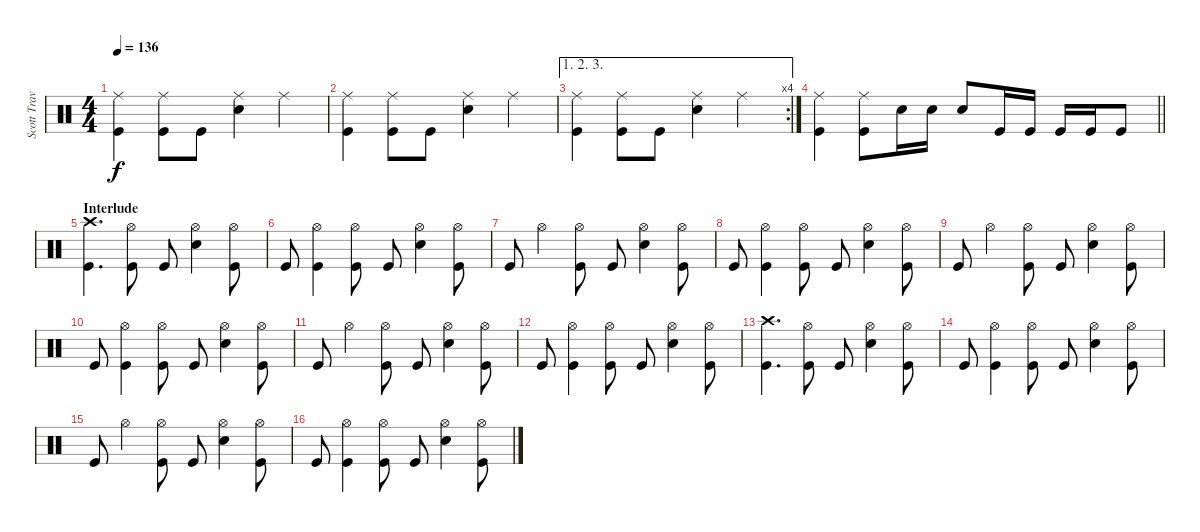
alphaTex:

\track ("Scott Travis" "Scott Trav") {instrument percussion}
\staff {score}
\articulation defaults
\ts (4 4)
\tempo 136
\clef neutral
\ks c
("Ride (middle)" "Kick (hit)").4{dy f} ("Ride (middle)" "Kick (hit)").8 "Kick (hit)".8 ("Ride (middle)" "Electric Snare (hit)").4 "Ride (middle)".4 |
("Ride (middle)" "Kick (hit)").4 ("Ride (middle)" "Kick (hit)").8 "Kick (hit)".8 ("Ride (middle)" "Electric Snare (hit)").4 "Ride (middle)".4 |
\ae (1 2 3)
\rc 4
("Ride (middle)" "Kick (hit)").4 ("Ride (middle)" "Kick (hit)").8 "Kick (hit)".8 ("Ride (middle)" "Electric Snare (hit)").4 "Ride (middle)".4 |
\barLineRight lightlight
("Ride (middle)" "Kick (hit)").4 ("Ride (middle)" "Kick (hit)").8 "Electric Snare (hit)".16 "Electric Snare (hit)".16 "Electric Snare (hit)".8 "Kick (hit)".16 "Kick (hit)".16 "Kick (hit)".16 "Kick (hit)".16 "Kick (hit)".8 |
\section ("" "Interlude")
("Crash high (hit)" "Kick (hit)").4{d} ("Hi-Hat (open)" "Kick (hit)").8 "Kick (hit)".8 ("Hi-Hat (open)" "Electric Snare (hit)").4 ("Hi-Hat (open)" "Kick (hit)").8 |
"Kick (hit)".8 ("Hi-Hat (open)" "Kick (hit)").4 ("Hi-Hat (open)" "Kick (hit)").8 "Kick (hit)".8 ("Hi-Hat (open)" "Electric Snare (hit)").4 ("Hi-Hat (open)" "Kick (hit)").8 |
"Kick (hit)".8 "Hi-Hat (open)".4 ("Hi-Hat (open)" "Kick (hit)").8 "Kick (hit)".8 ("Hi-Hat (open)" "Electric Snare (hit)").4 ("Hi-Hat (open)" "Kick (hit)").8 |
"Kick (hit)".8 ("Hi-Hat (open)" "Kick (hit)").4 ("Hi-Hat (open)" "Kick (hit)").8 "Kick (hit)".8 ("Hi-Hat (open)" "Electric Snare (hit)").4 ("Hi-Hat (open)" "Kick (hit)").8 |
"Kick (hit)".8 "Hi-Hat (open)".4 ("Hi-Hat (open)" "Kick (hit)").8 "Kick (hit)".8 ("Hi-Hat (open)" "Electric Snare (hit)").4 ("Hi-Hat (open)" "Kick (hit)").8 |
"Kick (hit)".8 ("Hi-Hat (open)" "Kick (hit)").4 ("Hi-Hat (open)" "Kick (hit)").8 "Kick (hit)".8 ("Hi-Hat (open)" "Electric Snare (hit)").4 ("Hi-Hat (open)" "Kick (hit)").8 |
"Kick (hit)".8 "Hi-Hat (open)".4 ("Hi-Hat (open)" "Kick (hit)").8 "Kick (hit)".8 ("Hi-Hat (open)" "Electric Snare (hit)").4 ("Hi-Hat (open)" "Kick (hit)").8 |
"Kick (hit)".8 ("Hi-Hat (open)" "Kick (hit)").4 ("Hi-Hat (open)" "Kick (hit)").8 "Kick (hit)".8 ("Hi-Hat (open)" "Electric Snare (hit)").4 ("Hi-Hat (open)" "Kick (hit)").8 |
("Crash high (hit)" "Kick (hit)").4{d} ("Hi-Hat (open)" "Kick (hit)").8 "Kick (hit)".8 ("Hi-Hat (open)" "Electric Snare (hit)").4 ("Hi-Hat (open)" "Kick (hit)").8 |
"Kick (hit)".8 ("Hi-Hat (open)" "Kick (hit)").4 ("Hi-Hat (open)" "Kick (hit)").8 "Kick (hit)".8 ("Hi-Hat (open)" "Electric Snare (hit)").4 ("Hi-Hat (open)" "Kick (hit)").8 |
"Kick (hit)".8 "Hi-Hat (open)".4 ("Hi-Hat (open)" "Kick (hit)").8 "Kick (hit)".8 ("Hi-Hat (open)" "Electric Snare (hit)").4 ("Hi-Hat (open)" "Kick (hit)").8 |
"Kick (hit)".8 ("Hi-Hat (open)" "Kick (hit)").4 ("Hi-Hat (open)" "Kick (hit)").8 "Kick (hit)".8 ("Hi-Hat (open)" "Electric Snare (hit)").4 ("Hi-Hat (open)" "Kick (hit)").8
